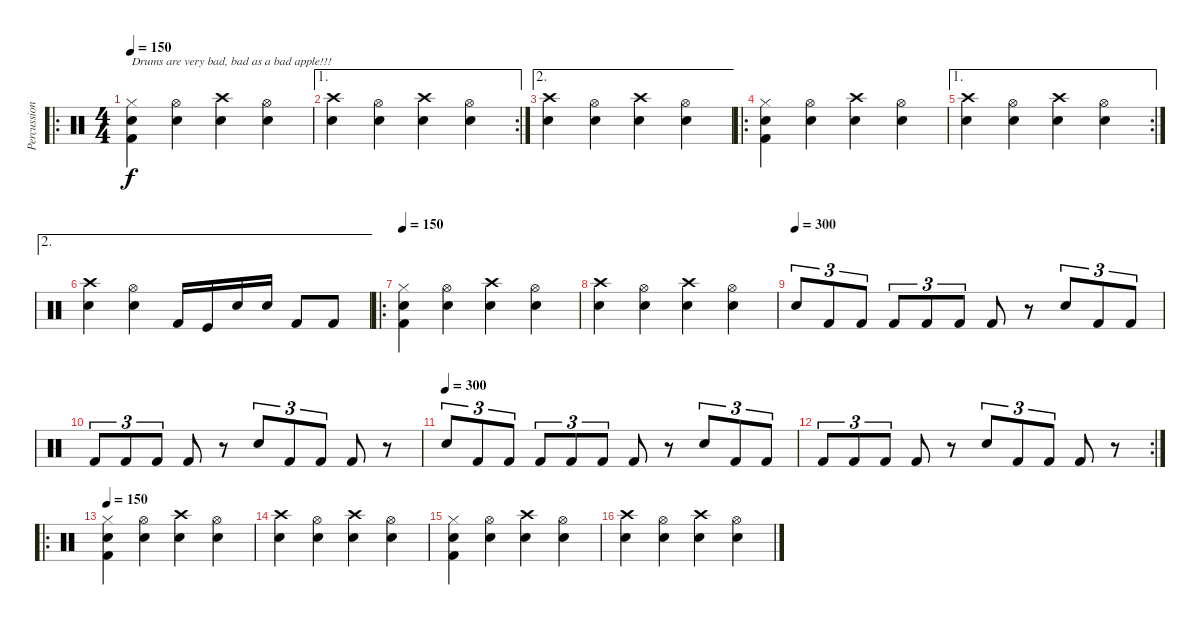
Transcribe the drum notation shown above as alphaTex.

\track ("Percussion" "Percussion") {instrument percussion}
\staff {score}
\articulation defaults
\ro
\ts (4 4)
\tempo 150
\clef neutral
\ks c
("Hi-Hat (closed)" "Snare (hit) 2" "Kick (hit) 2").4{txt "Drums are very bad, bad as a bad apple!!!" dy f} ("Hi-Hat (open)" "Snare (hit) 2").4 ("Crash high (hit)" "Snare (hit) 2").4 ("Hi-Hat (open)" "Snare (hit) 2").4 |
\ae 1
\rc 2
("Crash high (hit)" "Snare (hit) 2").4 ("Hi-Hat (open)" "Snare (hit) 2").4 ("Crash high (hit)" "Snare (hit) 2").4 ("Hi-Hat (open)" "Snare (hit) 2").4 |
\ae 2
("Crash high (hit)" "Snare (hit) 2").4 ("Hi-Hat (open)" "Snare (hit) 2").4 ("Crash high (hit)" "Snare (hit) 2").4 ("Hi-Hat (open)" "Snare (hit) 2").4 |
\ro
("Hi-Hat (closed)" "Snare (hit) 2" "Kick (hit) 2").4 ("Hi-Hat (open)" "Snare (hit) 2").4 ("Crash high (hit)" "Snare (hit) 2").4 ("Hi-Hat (open)" "Snare (hit) 2").4 |
\ae 1
\rc 2
("Crash high (hit)" "Snare (hit) 2").4 ("Hi-Hat (open)" "Snare (hit) 2").4 ("Crash high (hit)" "Snare (hit) 2").4 ("Hi-Hat (open)" "Snare (hit) 2").4 |
\ae 2
("Crash high (hit)" "Snare (hit) 2").4 ("Hi-Hat (open)" "Snare (hit) 2").4 "Kick (hit) 2".16 "Kick (hit)".16 "Snare (hit) 2".16 "Snare (hit) 2".16 "Kick (hit) 2".8 "Kick (hit) 2".8 |
\ro
\tempo 150
("Hi-Hat (closed)" "Snare (hit) 2" "Kick (hit) 2").4 ("Hi-Hat (open)" "Snare (hit) 2").4 ("Crash high (hit)" "Snare (hit) 2").4 ("Hi-Hat (open)" "Snare (hit) 2").4 |
("Crash high (hit)" "Snare (hit) 2").4 ("Hi-Hat (open)" "Snare (hit) 2").4 ("Crash high (hit)" "Snare (hit) 2").4 ("Hi-Hat (open)" "Snare (hit) 2").4 |
\tempo 250
\tempo (300)
"Snare (hit) 2".8{tu (3 2)} "Kick (hit) 2".8{tu (3 2)} "Kick (hit) 2".8{tu (3 2)} "Kick (hit) 2".8{tu (3 2)} "Kick (hit) 2".8{tu (3 2)} "Kick (hit) 2".8{tu (3 2)} "Kick (hit) 2".8 r.8 "Snare (hit) 2".8{tu (3 2)} "Kick (hit) 2".8{tu (3 2)} "Kick (hit) 2".8{tu (3 2)} |
"Kick (hit) 2".8{tu (3 2)} "Kick (hit) 2".8{tu (3 2)} "Kick (hit) 2".8{tu (3 2)} "Kick (hit) 2".8 r.8 "Snare (hit) 2".8{tu (3 2)} "Kick (hit) 2".8{tu (3 2)} "Kick (hit) 2".8{tu (3 2)} "Kick (hit) 2".8 r.8 |
\tempo (300)
"Snare (hit) 2".8{tu (3 2)} "Kick (hit) 2".8{tu (3 2)} "Kick (hit) 2".8{tu (3 2)} "Kick (hit) 2".8{tu (3 2)} "Kick (hit) 2".8{tu (3 2)} "Kick (hit) 2".8{tu (3 2)} "Kick (hit) 2".8 r.8 "Snare (hit) 2".8{tu (3 2)} "Kick (hit) 2".8{tu (3 2)} "Kick (hit) 2".8{tu (3 2)} |
\rc 2 "Kick (hit) 2".8{tu (3 2)} "Kick (hit) 2".8{tu (3 2)} "Kick (hit) 2".8{tu (3 2)} "Kick (hit) 2".8
r.8 "Snare (hit) 2".8{tu (3 2)} "Kick (hit) 2".8{tu (3 2)} "Kick (hit) 2".8{tu (3 2)} "Kick (hit) 2".8 r.8 |
\ro
\tempo 150
("Hi-Hat (closed)" "Snare (hit) 2" "Kick (hit) 2").4 ("Hi-Hat (open)" "Snare (hit) 2").4 ("Crash high (hit)" "Snare (hit) 2").4 ("Hi-Hat (open)" "Snare (hit) 2").4 |
("Crash high (hit)" "Snare (hit) 2").4 ("Hi-Hat (open)" "Snare (hit) 2").4 ("Crash high (hit)" "Snare (hit) 2").4 ("Hi-Hat (open)" "Snare (hit) 2").4 |
("Hi-Hat (closed)" "Snare (hit) 2" "Kick (hit) 2").4 ("Hi-Hat (open)" "Snare (hit) 2").4 ("Crash high (hit)" "Snare (hit) 2").4 ("Hi-Hat (open)" "Snare (hit) 2").4 |
("Crash high (hit)" "Snare (hit) 2").4 ("Hi-Hat (open)" "Snare (hit) 2").4 ("Crash high (hit)" "Snare (hit) 2").4 ("Hi-Hat (open)" "Snare (hit) 2").4
